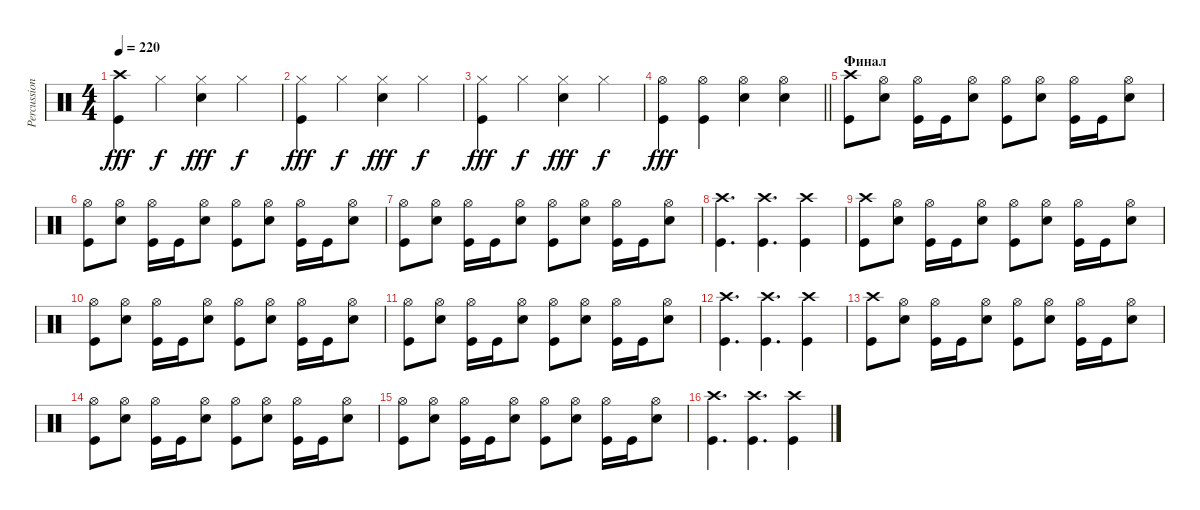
\track ("Percussion" "Percussion") {instrument percussion}
\staff {score}
\articulation defaults
\ts (4 4)
\tempo 220
\clef neutral
\ks c
("Kick (hit)" "Crash high (hit)").4{dy fff} "Hi-Hat (closed)".4{dy f} ("Snare (hit) 2" "Hi-Hat (closed)").4{dy fff} "Hi-Hat (closed)".4{dy f} |
("Kick (hit)" "Hi-Hat (closed)").4{dy fff} "Hi-Hat (closed)".4{dy f} ("Snare (hit) 2" "Hi-Hat (closed)").4{dy fff} "Hi-Hat (closed)".4{dy f} |
("Kick (hit)" "Hi-Hat (closed)").4{dy fff} "Hi-Hat (closed)".4{dy f} ("Snare (hit) 2" "Hi-Hat (closed)").4{dy fff} "Hi-Hat (closed)".4{dy f} |
\barLineRight lightlight
("Kick (hit)" "Hi-Hat (open)").4{dy fff} ("Kick (hit)" "Hi-Hat (open)").4 ("Snare (hit) 2" "Hi-Hat (open)").4 ("Snare (hit) 2" "Hi-Hat (open)").4 |
\section ("" "Финал")
("Crash high (hit)" "Kick (hit)").8 ("Hi-Hat (open)" "Snare (hit) 2").8 ("Hi-Hat (open)" "Kick (hit)").16 "Kick (hit)".16 ("Hi-Hat (open)" "Snare (hit) 2").8 ("Hi-Hat (open)" "Kick (hit)").8 ("Hi-Hat (open)" "Snare (hit) 2").8 ("Hi-Hat (open)" "Kick (hit)").16 "Kick (hit)".16 ("Hi-Hat (open)" "Snare (hit) 2").8 |
("Hi-Hat (open)" "Kick (hit)").8 ("Hi-Hat (open)" "Snare (hit) 2").8 ("Hi-Hat (open)" "Kick (hit)").16 "Kick (hit)".16 ("Hi-Hat (open)" "Snare (hit) 2").8 ("Hi-Hat (open)" "Kick (hit)").8 ("Hi-Hat (open)" "Snare (hit) 2").8 ("Hi-Hat (open)" "Kick (hit)").16 "Kick (hit)".16 ("Hi-Hat (open)" "Snare (hit) 2").8 |
("Hi-Hat (open)" "Kick (hit)").8 ("Hi-Hat (open)" "Snare (hit) 2").8 ("Hi-Hat (open)" "Kick (hit)").16 "Kick (hit)".16 ("Hi-Hat (open)" "Snare (hit) 2").8 ("Hi-Hat (open)" "Kick (hit)").8 ("Hi-Hat (open)" "Snare (hit) 2").8 ("Hi-Hat (open)" "Kick (hit)").16 "Kick (hit)".16 ("Hi-Hat (open)" "Snare (hit) 2").8 |
("Crash high (hit)" "Kick (hit)").4{d} ("Crash high (hit)" "Kick (hit)").4{d} ("Crash high (hit)" "Kick (hit)").4 |
("Crash high (hit)" "Kick (hit)").8 ("Hi-Hat (open)" "Snare (hit) 2").8 ("Hi-Hat (open)" "Kick (hit)").16 "Kick (hit)".16 ("Hi-Hat (open)" "Snare (hit) 2").8 ("Hi-Hat (open)" "Kick (hit)").8 ("Hi-Hat (open)" "Snare (hit) 2").8 ("Hi-Hat (open)" "Kick (hit)").16 "Kick (hit)".16 ("Hi-Hat (open)" "Snare (hit) 2").8 |
("Hi-Hat (open)" "Kick (hit)").8 ("Hi-Hat (open)" "Snare (hit) 2").8 ("Hi-Hat (open)" "Kick (hit)").16 "Kick (hit)".16 ("Hi-Hat (open)" "Snare (hit) 2").8 ("Hi-Hat (open)" "Kick (hit)").8 ("Hi-Hat (open)" "Snare (hit) 2").8 ("Hi-Hat (open)" "Kick (hit)").16 "Kick (hit)".16 ("Hi-Hat (open)" "Snare (hit) 2").8 |
("Hi-Hat (open)" "Kick (hit)").8 ("Hi-Hat (open)" "Snare (hit) 2").8 ("Hi-Hat (open)" "Kick (hit)").16 "Kick (hit)".16 ("Hi-Hat (open)" "Snare (hit) 2").8 ("Hi-Hat (open)" "Kick (hit)").8 ("Hi-Hat (open)" "Snare (hit) 2").8 ("Hi-Hat (open)" "Kick (hit)").16 "Kick (hit)".16 ("Hi-Hat (open)" "Snare (hit) 2").8 |
("Crash high (hit)" "Kick (hit)").4{d} ("Crash high (hit)" "Kick (hit)").4{d} ("Crash high (hit)" "Kick (hit)").4 |
("Crash high (hit)" "Kick (hit)").8 ("Hi-Hat (open)" "Snare (hit) 2").8 ("Hi-Hat (open)" "Kick (hit)").16 "Kick (hit)".16 ("Hi-Hat (open)" "Snare (hit) 2").8 ("Hi-Hat (open)" "Kick (hit)").8 ("Hi-Hat (open)" "Snare (hit) 2").8 ("Hi-Hat (open)" "Kick (hit)").16 "Kick (hit)".16 ("Hi-Hat (open)" "Snare (hit) 2").8 |
("Hi-Hat (open)" "Kick (hit)").8 ("Hi-Hat (open)" "Snare (hit) 2").8 ("Hi-Hat (open)" "Kick (hit)").16 "Kick (hit)".16 ("Hi-Hat (open)" "Snare (hit) 2").8 ("Hi-Hat (open)" "Kick (hit)").8 ("Hi-Hat (open)" "Snare (hit) 2").8 ("Hi-Hat (open)" "Kick (hit)").16 "Kick (hit)".16 ("Hi-Hat (open)" "Snare (hit) 2").8 |
("Hi-Hat (open)" "Kick (hit)").8 ("Hi-Hat (open)" "Snare (hit) 2").8 ("Hi-Hat (open)" "Kick (hit)").16 "Kick (hit)".16 ("Hi-Hat (open)" "Snare (hit) 2").8 ("Hi-Hat (open)" "Kick (hit)").8 ("Hi-Hat (open)" "Snare (hit) 2").8 ("Hi-Hat (open)" "Kick (hit)").16 "Kick (hit)".16 ("Hi-Hat (open)" "Snare (hit) 2").8 |
("Crash high (hit)" "Kick (hit)").4{d} ("Crash high (hit)" "Kick (hit)").4{d} ("Crash high (hit)" "Kick (hit)").4
